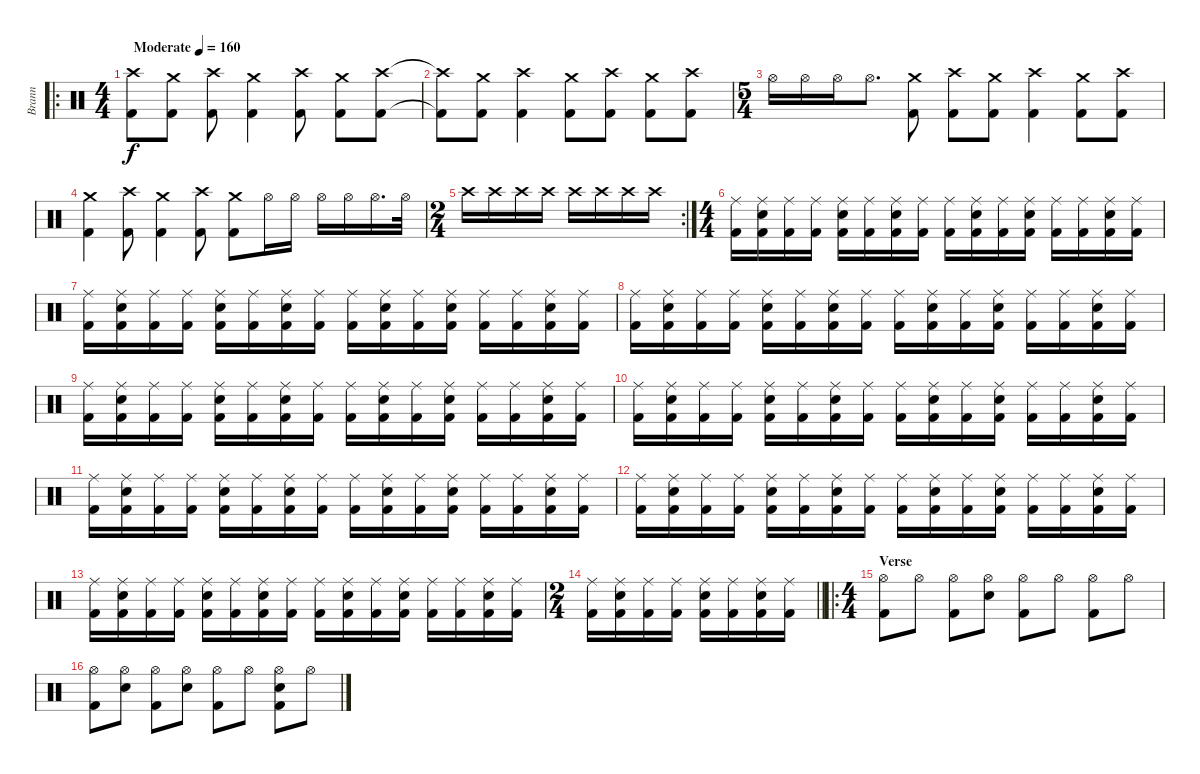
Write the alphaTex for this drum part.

\track ("Brann" "Brann") {instrument percussion}
\staff {score}
\articulation defaults
\ro
\ts (4 4)
\tempo (160 "Moderate")
\clef neutral
\ks c
("Crash high (hit)" "Kick (hit) 2").8{dy f} ("Crash medium (hit)" "Kick (hit) 2").8 ("Crash high (hit)" "Kick (hit) 2").8 ("Crash medium (hit)" "Kick (hit) 2").4 ("Crash high (hit)" "Kick (hit) 2").8 ("Crash medium (hit)" "Kick (hit) 2").8 ("Crash high (hit)" "Kick (hit) 2").8 |
("Crash high (hit)"{t} "Kick (hit) 2"{t}).8 ("Crash medium (hit)" "Kick (hit) 2").8 ("Crash high (hit)" "Kick (hit) 2").4 ("Crash medium (hit)" "Kick (hit) 2").8 ("Crash high (hit)" "Kick (hit) 2").8 ("Crash medium (hit)" "Kick (hit) 2").8 ("Crash high (hit)" "Kick (hit) 2").8 |
\ts (5 4)
"Hi-Hat (open)".16 "Hi-Hat (open)".16 "Hi-Hat (open)".16 "Hi-Hat (open)".8{d} ("Crash medium (hit)" "Kick (hit) 2").8 ("Crash high (hit)" "Kick (hit) 2").8 ("Crash medium (hit)" "Kick (hit) 2").8 ("Crash high (hit)" "Kick (hit) 2").4 ("Crash medium (hit)" "Kick (hit) 2").8 ("Crash high (hit)" "Kick (hit) 2").8 |
("Crash medium (hit)" "Kick (hit) 2").4 ("Crash high (hit)" "Kick (hit) 2").8 ("Crash medium (hit)" "Kick (hit) 2").4 ("Crash high (hit)" "Kick (hit) 2").8 ("Crash medium (hit)" "Kick (hit) 2").8 "Hi-Hat (open)".16 "Hi-Hat (open)".16 "Hi-Hat (open)".16 "Hi-Hat (open)".16 "Hi-Hat (open)".16{d} "Hi-Hat (open)".32 |
\rc 2
\ts (2 4)
"Crash high (hit)".16 "Crash high (hit)".16 "Crash high (hit)".16 "Crash high (hit)".16 "Crash high (hit)".16 "Crash high (hit)".16 "Crash high (hit)".16 "Crash high (hit)".16 |
\ts (4 4)
("Ride (middle)" "Kick (hit) 2").16 ("Ride (middle)" "Electric Snare (hit)" "Kick (hit) 2").16 ("Ride (middle)" "Kick (hit) 2").16 ("Ride (middle)" "Kick (hit) 2").16 ("Ride (middle)" "Electric Snare (hit)" "Kick (hit) 2").16 ("Ride (middle)" "Kick (hit) 2").16 ("Ride (middle)" "Electric Snare (hit)" "Kick (hit) 2").16 ("Ride (middle)" "Kick (hit) 2").16 ("Ride (middle)" "Kick (hit) 2").16 ("Ride (middle)" "Electric Snare (hit)" "Kick (hit) 2").16 ("Ride (middle)" "Kick (hit) 2").16 ("Ride (middle)" "Electric Snare (hit)" "Kick (hit) 2").16 ("Ride (middle)" "Kick (hit) 2").16 ("Ride (middle)" "Kick (hit) 2").16 ("Ride (middle)" "Electric Snare (hit)" "Kick (hit) 2").16 ("Ride (middle)" "Kick (hit) 2").16 |
("Ride (middle)" "Kick (hit) 2").16 ("Ride (middle)" "Electric Snare (hit)" "Kick (hit) 2").16 ("Ride (middle)" "Kick (hit) 2").16 ("Ride (middle)" "Kick (hit) 2").16 ("Ride (middle)" "Electric Snare (hit)" "Kick (hit) 2").16 ("Ride (middle)" "Kick (hit) 2").16 ("Ride (middle)" "Electric Snare (hit)" "Kick (hit) 2").16 ("Ride (middle)" "Kick (hit) 2").16 ("Ride (middle)" "Kick (hit) 2").16 ("Ride (middle)" "Electric Snare (hit)" "Kick (hit) 2").16 ("Ride (middle)" "Kick (hit) 2").16 ("Ride (middle)" "Electric Snare (hit)" "Kick (hit) 2").16 ("Ride (middle)" "Kick (hit) 2").16 ("Ride (middle)" "Kick (hit) 2").16 ("Ride (middle)" "Electric Snare (hit)" "Kick (hit) 2").16 ("Ride (middle)" "Kick (hit) 2").16 |
("Ride (middle)" "Kick (hit) 2").16 ("Ride (middle)" "Electric Snare (hit)" "Kick (hit) 2").16 ("Ride (middle)" "Kick (hit) 2").16 ("Ride (middle)" "Kick (hit) 2").16 ("Ride (middle)" "Electric Snare (hit)" "Kick (hit) 2").16 ("Ride (middle)" "Kick (hit) 2").16 ("Ride (middle)" "Electric Snare (hit)" "Kick (hit) 2").16 ("Ride (middle)" "Kick (hit) 2").16 ("Ride (middle)" "Kick (hit) 2").16 ("Ride (middle)" "Electric Snare (hit)" "Kick (hit) 2").16 ("Ride (middle)" "Kick (hit) 2").16 ("Ride (middle)" "Electric Snare (hit)" "Kick (hit) 2").16 ("Ride (middle)" "Kick (hit) 2").16 ("Ride (middle)" "Kick (hit) 2").16 ("Ride (middle)" "Electric Snare (hit)" "Kick (hit) 2").16 ("Ride (middle)" "Kick (hit) 2").16 |
("Ride (middle)" "Kick (hit) 2").16 ("Ride (middle)" "Electric Snare (hit)" "Kick (hit) 2").16 ("Ride (middle)" "Kick (hit) 2").16 ("Ride (middle)" "Kick (hit) 2").16 ("Ride (middle)" "Electric Snare (hit)" "Kick (hit) 2").16 ("Ride (middle)" "Kick (hit) 2").16 ("Ride (middle)" "Electric Snare (hit)" "Kick (hit) 2").16 ("Ride (middle)" "Kick (hit) 2").16 ("Ride (middle)" "Kick (hit) 2").16 ("Ride (middle)" "Electric Snare (hit)" "Kick (hit) 2").16 ("Ride (middle)" "Kick (hit) 2").16 ("Ride (middle)" "Electric Snare (hit)" "Kick (hit) 2").16 ("Ride (middle)" "Kick (hit) 2").16 ("Ride (middle)" "Kick (hit) 2").16 ("Ride (middle)" "Electric Snare (hit)" "Kick (hit) 2").16 ("Ride (middle)" "Kick (hit) 2").16 |
("Ride (middle)" "Kick (hit) 2").16 ("Ride (middle)" "Electric Snare (hit)" "Kick (hit) 2").16 ("Ride (middle)" "Kick (hit) 2").16 ("Ride (middle)" "Kick (hit) 2").16 ("Ride (middle)" "Electric Snare (hit)" "Kick (hit) 2").16 ("Ride (middle)" "Kick (hit) 2").16 ("Ride (middle)" "Electric Snare (hit)" "Kick (hit) 2").16 ("Ride (middle)" "Kick (hit) 2").16 ("Ride (middle)" "Kick (hit) 2").16 ("Ride (middle)" "Electric Snare (hit)" "Kick (hit) 2").16 ("Ride (middle)" "Kick (hit) 2").16 ("Ride (middle)" "Electric Snare (hit)" "Kick (hit) 2").16 ("Ride (middle)" "Kick (hit) 2").16 ("Ride (middle)" "Kick (hit) 2").16 ("Ride (middle)" "Electric Snare (hit)" "Kick (hit) 2").16 ("Ride (middle)" "Kick (hit) 2").16 |
("Ride (middle)" "Kick (hit) 2").16 ("Ride (middle)" "Electric Snare (hit)" "Kick (hit) 2").16 ("Ride (middle)" "Kick (hit) 2").16 ("Ride (middle)" "Kick (hit) 2").16 ("Ride (middle)" "Electric Snare (hit)" "Kick (hit) 2").16 ("Ride (middle)" "Kick (hit) 2").16 ("Ride (middle)" "Electric Snare (hit)" "Kick (hit) 2").16 ("Ride (middle)" "Kick (hit) 2").16 ("Ride (middle)" "Kick (hit) 2").16 ("Ride (middle)" "Electric Snare (hit)" "Kick (hit) 2").16 ("Ride (middle)" "Kick (hit) 2").16 ("Ride (middle)" "Electric Snare (hit)" "Kick (hit) 2").16 ("Ride (middle)" "Kick (hit) 2").16 ("Ride (middle)" "Kick (hit) 2").16 ("Ride (middle)" "Electric Snare (hit)" "Kick (hit) 2").16 ("Ride (middle)" "Kick (hit) 2").16 |
("Ride (middle)" "Kick (hit) 2").16 ("Ride (middle)" "Electric Snare (hit)" "Kick (hit) 2").16 ("Ride (middle)" "Kick (hit) 2").16 ("Ride (middle)" "Kick (hit) 2").16 ("Ride (middle)" "Electric Snare (hit)" "Kick (hit) 2").16 ("Ride (middle)" "Kick (hit) 2").16 ("Ride (middle)" "Electric Snare (hit)" "Kick (hit) 2").16 ("Ride (middle)" "Kick (hit) 2").16 ("Ride (middle)" "Kick (hit) 2").16 ("Ride (middle)" "Electric Snare (hit)" "Kick (hit) 2").16 ("Ride (middle)" "Kick (hit) 2").16 ("Ride (middle)" "Electric Snare (hit)" "Kick (hit) 2").16 ("Ride (middle)" "Kick (hit) 2").16 ("Ride (middle)" "Kick (hit) 2").16 ("Ride (middle)" "Electric Snare (hit)" "Kick (hit) 2").16 ("Ride (middle)" "Kick (hit) 2").16 |
("Ride (middle)" "Kick (hit) 2").16 ("Ride (middle)" "Electric Snare (hit)" "Kick (hit) 2").16 ("Ride (middle)" "Kick (hit) 2").16 ("Ride (middle)" "Kick (hit) 2").16 ("Ride (middle)" "Electric Snare (hit)" "Kick (hit) 2").16 ("Ride (middle)" "Kick (hit) 2").16 ("Ride (middle)" "Electric Snare (hit)" "Kick (hit) 2").16 ("Ride (middle)" "Kick (hit) 2").16 ("Ride (middle)" "Kick (hit) 2").16 ("Ride (middle)" "Electric Snare (hit)" "Kick (hit) 2").16 ("Ride (middle)" "Kick (hit) 2").16 ("Ride (middle)" "Electric Snare (hit)" "Kick (hit) 2").16 ("Ride (middle)" "Kick (hit) 2").16 ("Ride (middle)" "Kick (hit) 2").16 ("Ride (middle)" "Electric Snare (hit)" "Kick (hit) 2").16 ("Ride (middle)" "Kick (hit) 2").16 |
\ts (2 4)
\barLineRight lightlight
("Ride (middle)" "Kick (hit) 2").16 ("Ride (middle)" "Electric Snare (hit)" "Kick (hit) 2").16 ("Ride (middle)" "Kick (hit) 2").16 ("Ride (middle)" "Kick (hit) 2").16 ("Ride (middle)" "Electric Snare (hit)" "Kick (hit) 2").16 ("Ride (middle)" "Kick (hit) 2").16 ("Ride (middle)" "Electric Snare (hit)" "Kick (hit) 2").16 ("Ride (middle)" "Kick (hit) 2").16 |
\ro
\ts (4 4)
\section ("" "Verse")
("Hi-Hat (open)" "Kick (hit) 2").8 "Hi-Hat (open)".8 ("Hi-Hat (open)" "Kick (hit) 2").8 ("Hi-Hat (open)" "Electric Snare (hit)").8 ("Hi-Hat (open)" "Kick (hit) 2").8 "Hi-Hat (open)".8 ("Hi-Hat (open)" "Kick (hit) 2").8 "Hi-Hat (open)".8 |
("Hi-Hat (open)" "Kick (hit) 2").8 ("Hi-Hat (open)" "Electric Snare (hit)").8 ("Hi-Hat (open)" "Kick (hit) 2").8 ("Hi-Hat (open)" "Snare (hit)").8 ("Hi-Hat (open)" "Kick (hit) 2").8 "Hi-Hat (open)".8 ("Hi-Hat (open)" "Electric Snare (hit)" "Kick (hit) 2").8 "Hi-Hat (open)".8
